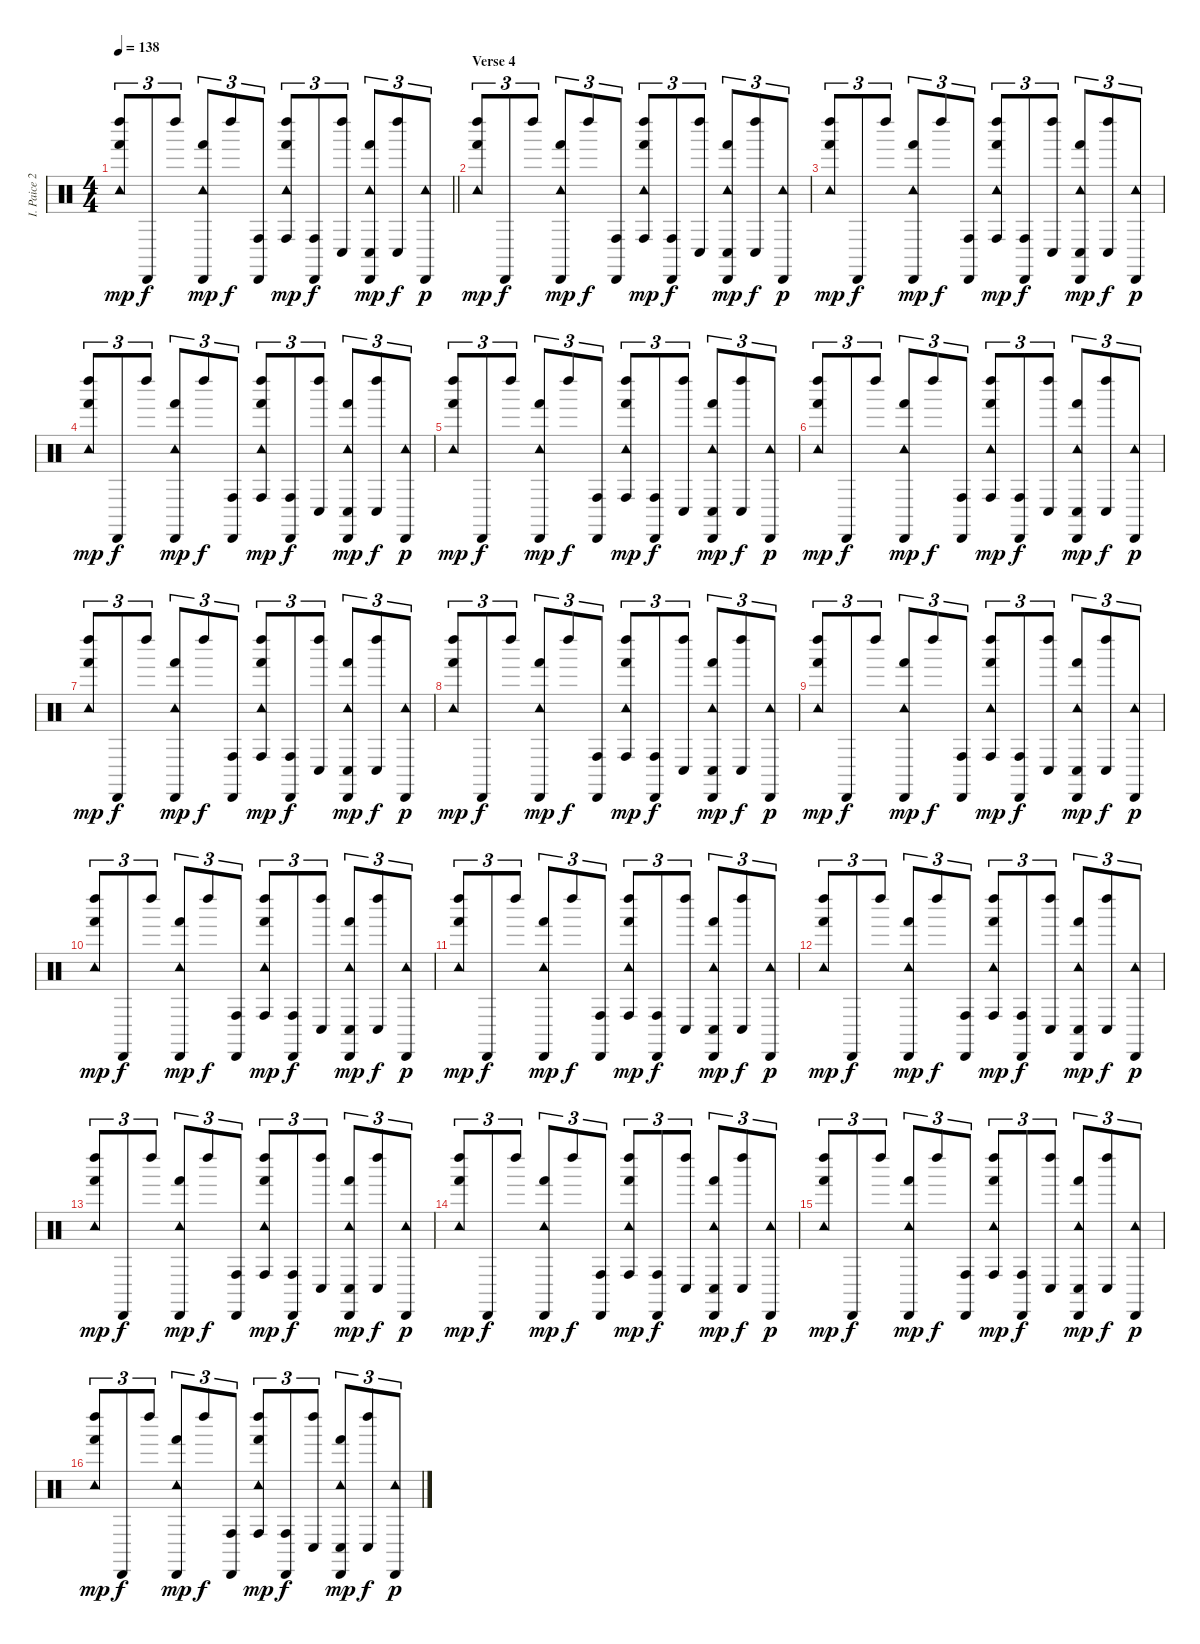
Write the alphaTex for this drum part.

\track ("I. Paice 2" "I. Paice 2") {instrument percussion}
\staff {score}
\articulation defaults
\ts (4 4)
\tempo 138
\clef neutral
\barLineRight lightlight
\ks c
("Tambourine (hit)" "Left Maraca (hit)" "Hand (hit)").8{tu (3 2) dy mp} "Cabasa (hit)".8{tu (3 2) dy f} "Left Maraca (hit)".8{tu (3 2)} ("Tambourine (hit)" "Cabasa (hit)" "Hand (hit)").8{tu (3 2) dy mp} "Left Maraca (hit)".8{tu (3 2) dy f} ("Cabasa (hit)" "Conga high (hit)").8{tu (3 2)} ("Tambourine (hit)" "Left Maraca (hit)" "Hand (hit)" "Conga high (hit)").8{tu (3 2) dy mp} ("Cabasa (hit)" "Conga high (hit)").8{tu (3 2) dy f} ("Left Maraca (hit)" "Conga low (hit)").8{tu (3 2)} ("Tambourine (hit)" "Cabasa (hit)" "Hand (hit)" "Conga low (hit)").8{tu (3 2) dy mp} ("Left Maraca (hit)" "Conga low (hit)").8{tu (3 2) dy f} ("Tambourine (hit)" "Cabasa (hit)").8{tu (3 2) dy p} |
\section ("" "Verse 4")
("Tambourine (hit)" "Left Maraca (hit)" "Hand (hit)").8{tu (3 2) dy mp} "Cabasa (hit)".8{tu (3 2) dy f} "Left Maraca (hit)".8{tu (3 2)} ("Tambourine (hit)" "Cabasa (hit)" "Hand (hit)").8{tu (3 2) dy mp} "Left Maraca (hit)".8{tu (3 2) dy f} ("Cabasa (hit)" "Conga high (hit)").8{tu (3 2)} ("Tambourine (hit)" "Left Maraca (hit)" "Hand (hit)" "Conga high (hit)").8{tu (3 2) dy mp} ("Cabasa (hit)" "Conga high (hit)").8{tu (3 2) dy f} ("Left Maraca (hit)" "Conga low (hit)").8{tu (3 2)} ("Tambourine (hit)" "Cabasa (hit)" "Hand (hit)" "Conga low (hit)").8{tu (3 2) dy mp} ("Left Maraca (hit)" "Conga low (hit)").8{tu (3 2) dy f} ("Tambourine (hit)" "Cabasa (hit)").8{tu (3 2) dy p} |
("Tambourine (hit)" "Left Maraca (hit)" "Hand (hit)").8{tu (3 2) dy mp} "Cabasa (hit)".8{tu (3 2) dy f} "Left Maraca (hit)".8{tu (3 2)} ("Tambourine (hit)" "Cabasa (hit)" "Hand (hit)").8{tu (3 2) dy mp} "Left Maraca (hit)".8{tu (3 2) dy f} ("Cabasa (hit)" "Conga high (hit)").8{tu (3 2)} ("Tambourine (hit)" "Left Maraca (hit)" "Hand (hit)" "Conga high (hit)").8{tu (3 2) dy mp} ("Cabasa (hit)" "Conga high (hit)").8{tu (3 2) dy f} ("Left Maraca (hit)" "Conga low (hit)").8{tu (3 2)} ("Tambourine (hit)" "Cabasa (hit)" "Hand (hit)" "Conga low (hit)").8{tu (3 2) dy mp} ("Left Maraca (hit)" "Conga low (hit)").8{tu (3 2) dy f} ("Tambourine (hit)" "Cabasa (hit)").8{tu (3 2) dy p} |
("Tambourine (hit)" "Left Maraca (hit)" "Hand (hit)").8{tu (3 2) dy mp} "Cabasa (hit)".8{tu (3 2) dy f} "Left Maraca (hit)".8{tu (3 2)} ("Tambourine (hit)" "Cabasa (hit)" "Hand (hit)").8{tu (3 2) dy mp} "Left Maraca (hit)".8{tu (3 2) dy f} ("Cabasa (hit)" "Conga high (hit)").8{tu (3 2)} ("Tambourine (hit)" "Left Maraca (hit)" "Hand (hit)" "Conga high (hit)").8{tu (3 2) dy mp} ("Cabasa (hit)" "Conga high (hit)").8{tu (3 2) dy f} ("Left Maraca (hit)" "Conga low (hit)").8{tu (3 2)} ("Tambourine (hit)" "Cabasa (hit)" "Hand (hit)" "Conga low (hit)").8{tu (3 2) dy mp} ("Left Maraca (hit)" "Conga low (hit)").8{tu (3 2) dy f} ("Tambourine (hit)" "Cabasa (hit)").8{tu (3 2) dy p} |
("Tambourine (hit)" "Left Maraca (hit)" "Hand (hit)").8{tu (3 2) dy mp} "Cabasa (hit)".8{tu (3 2) dy f} "Left Maraca (hit)".8{tu (3 2)} ("Tambourine (hit)" "Cabasa (hit)" "Hand (hit)").8{tu (3 2) dy mp} "Left Maraca (hit)".8{tu (3 2) dy f} ("Cabasa (hit)" "Conga high (hit)").8{tu (3 2)} ("Tambourine (hit)" "Left Maraca (hit)" "Hand (hit)" "Conga high (hit)").8{tu (3 2) dy mp} ("Cabasa (hit)" "Conga high (hit)").8{tu (3 2) dy f} ("Left Maraca (hit)" "Conga low (hit)").8{tu (3 2)} ("Tambourine (hit)" "Cabasa (hit)" "Hand (hit)" "Conga low (hit)").8{tu (3 2) dy mp} ("Left Maraca (hit)" "Conga low (hit)").8{tu (3 2) dy f} ("Tambourine (hit)" "Cabasa (hit)").8{tu (3 2) dy p} |
("Tambourine (hit)" "Left Maraca (hit)" "Hand (hit)").8{tu (3 2) dy mp} "Cabasa (hit)".8{tu (3 2) dy f} "Left Maraca (hit)".8{tu (3 2)} ("Tambourine (hit)" "Cabasa (hit)" "Hand (hit)").8{tu (3 2) dy mp} "Left Maraca (hit)".8{tu (3 2) dy f} ("Cabasa (hit)" "Conga high (hit)").8{tu (3 2)} ("Tambourine (hit)" "Left Maraca (hit)" "Hand (hit)" "Conga high (hit)").8{tu (3 2) dy mp} ("Cabasa (hit)" "Conga high (hit)").8{tu (3 2) dy f} ("Left Maraca (hit)" "Conga low (hit)").8{tu (3 2)} ("Tambourine (hit)" "Cabasa (hit)" "Hand (hit)" "Conga low (hit)").8{tu (3 2) dy mp} ("Left Maraca (hit)" "Conga low (hit)").8{tu (3 2) dy f} ("Tambourine (hit)" "Cabasa (hit)").8{tu (3 2) dy p} |
("Tambourine (hit)" "Left Maraca (hit)" "Hand (hit)").8{tu (3 2) dy mp} "Cabasa (hit)".8{tu (3 2) dy f} "Left Maraca (hit)".8{tu (3 2)} ("Tambourine (hit)" "Cabasa (hit)" "Hand (hit)").8{tu (3 2) dy mp} "Left Maraca (hit)".8{tu (3 2) dy f} ("Cabasa (hit)" "Conga high (hit)").8{tu (3 2)} ("Tambourine (hit)" "Left Maraca (hit)" "Hand (hit)" "Conga high (hit)").8{tu (3 2) dy mp} ("Cabasa (hit)" "Conga high (hit)").8{tu (3 2) dy f} ("Left Maraca (hit)" "Conga low (hit)").8{tu (3 2)} ("Tambourine (hit)" "Cabasa (hit)" "Hand (hit)" "Conga low (hit)").8{tu (3 2) dy mp} ("Left Maraca (hit)" "Conga low (hit)").8{tu (3 2) dy f} ("Tambourine (hit)" "Cabasa (hit)").8{tu (3 2) dy p} |
("Tambourine (hit)" "Left Maraca (hit)" "Hand (hit)").8{tu (3 2) dy mp} "Cabasa (hit)".8{tu (3 2) dy f} "Left Maraca (hit)".8{tu (3 2)} ("Tambourine (hit)" "Cabasa (hit)" "Hand (hit)").8{tu (3 2) dy mp} "Left Maraca (hit)".8{tu (3 2) dy f} ("Cabasa (hit)" "Conga high (hit)").8{tu (3 2)} ("Tambourine (hit)" "Left Maraca (hit)" "Hand (hit)" "Conga high (hit)").8{tu (3 2) dy mp} ("Cabasa (hit)" "Conga high (hit)").8{tu (3 2) dy f} ("Left Maraca (hit)" "Conga low (hit)").8{tu (3 2)} ("Tambourine (hit)" "Cabasa (hit)" "Hand (hit)" "Conga low (hit)").8{tu (3 2) dy mp} ("Left Maraca (hit)" "Conga low (hit)").8{tu (3 2) dy f} ("Tambourine (hit)" "Cabasa (hit)").8{tu (3 2) dy p} |
("Tambourine (hit)" "Left Maraca (hit)" "Hand (hit)").8{tu (3 2) dy mp} "Cabasa (hit)".8{tu (3 2) dy f} "Left Maraca (hit)".8{tu (3 2)} ("Tambourine (hit)" "Cabasa (hit)" "Hand (hit)").8{tu (3 2) dy mp} "Left Maraca (hit)".8{tu (3 2) dy f} ("Cabasa (hit)" "Conga high (hit)").8{tu (3 2)} ("Tambourine (hit)" "Left Maraca (hit)" "Hand (hit)" "Conga high (hit)").8{tu (3 2) dy mp} ("Cabasa (hit)" "Conga high (hit)").8{tu (3 2) dy f} ("Left Maraca (hit)" "Conga low (hit)").8{tu (3 2)} ("Tambourine (hit)" "Cabasa (hit)" "Hand (hit)" "Conga low (hit)").8{tu (3 2) dy mp} ("Left Maraca (hit)" "Conga low (hit)").8{tu (3 2) dy f} ("Tambourine (hit)" "Cabasa (hit)").8{tu (3 2) dy p} |
("Tambourine (hit)" "Left Maraca (hit)" "Hand (hit)").8{tu (3 2) dy mp} "Cabasa (hit)".8{tu (3 2) dy f} "Left Maraca (hit)".8{tu (3 2)} ("Tambourine (hit)" "Cabasa (hit)" "Hand (hit)").8{tu (3 2) dy mp} "Left Maraca (hit)".8{tu (3 2) dy f} ("Cabasa (hit)" "Conga high (hit)").8{tu (3 2)} ("Tambourine (hit)" "Left Maraca (hit)" "Hand (hit)" "Conga high (hit)").8{tu (3 2) dy mp} ("Cabasa (hit)" "Conga high (hit)").8{tu (3 2) dy f} ("Left Maraca (hit)" "Conga low (hit)").8{tu (3 2)} ("Tambourine (hit)" "Cabasa (hit)" "Hand (hit)" "Conga low (hit)").8{tu (3 2) dy mp} ("Left Maraca (hit)" "Conga low (hit)").8{tu (3 2) dy f} ("Tambourine (hit)" "Cabasa (hit)").8{tu (3 2) dy p} |
("Tambourine (hit)" "Left Maraca (hit)" "Hand (hit)").8{tu (3 2) dy mp} "Cabasa (hit)".8{tu (3 2) dy f} "Left Maraca (hit)".8{tu (3 2)} ("Tambourine (hit)" "Cabasa (hit)" "Hand (hit)").8{tu (3 2) dy mp} "Left Maraca (hit)".8{tu (3 2) dy f} ("Cabasa (hit)" "Conga high (hit)").8{tu (3 2)} ("Tambourine (hit)" "Left Maraca (hit)" "Hand (hit)" "Conga high (hit)").8{tu (3 2) dy mp} ("Cabasa (hit)" "Conga high (hit)").8{tu (3 2) dy f} ("Left Maraca (hit)" "Conga low (hit)").8{tu (3 2)} ("Tambourine (hit)" "Cabasa (hit)" "Hand (hit)" "Conga low (hit)").8{tu (3 2) dy mp} ("Left Maraca (hit)" "Conga low (hit)").8{tu (3 2) dy f} ("Tambourine (hit)" "Cabasa (hit)").8{tu (3 2) dy p} |
("Tambourine (hit)" "Left Maraca (hit)" "Hand (hit)").8{tu (3 2) dy mp} "Cabasa (hit)".8{tu (3 2) dy f} "Left Maraca (hit)".8{tu (3 2)} ("Tambourine (hit)" "Cabasa (hit)" "Hand (hit)").8{tu (3 2) dy mp} "Left Maraca (hit)".8{tu (3 2) dy f} ("Cabasa (hit)" "Conga high (hit)").8{tu (3 2)} ("Tambourine (hit)" "Left Maraca (hit)" "Hand (hit)" "Conga high (hit)").8{tu (3 2) dy mp} ("Cabasa (hit)" "Conga high (hit)").8{tu (3 2) dy f} ("Left Maraca (hit)" "Conga low (hit)").8{tu (3 2)} ("Tambourine (hit)" "Cabasa (hit)" "Hand (hit)" "Conga low (hit)").8{tu (3 2) dy mp} ("Left Maraca (hit)" "Conga low (hit)").8{tu (3 2) dy f} ("Tambourine (hit)" "Cabasa (hit)").8{tu (3 2) dy p} |
("Tambourine (hit)" "Left Maraca (hit)" "Hand (hit)").8{tu (3 2) dy mp} "Cabasa (hit)".8{tu (3 2) dy f} "Left Maraca (hit)".8{tu (3 2)} ("Tambourine (hit)" "Cabasa (hit)" "Hand (hit)").8{tu (3 2) dy mp} "Left Maraca (hit)".8{tu (3 2) dy f} ("Cabasa (hit)" "Conga high (hit)").8{tu (3 2)} ("Tambourine (hit)" "Left Maraca (hit)" "Hand (hit)" "Conga high (hit)").8{tu (3 2) dy mp} ("Cabasa (hit)" "Conga high (hit)").8{tu (3 2) dy f} ("Left Maraca (hit)" "Conga low (hit)").8{tu (3 2)} ("Tambourine (hit)" "Cabasa (hit)" "Hand (hit)" "Conga low (hit)").8{tu (3 2) dy mp} ("Left Maraca (hit)" "Conga low (hit)").8{tu (3 2) dy f} ("Tambourine (hit)" "Cabasa (hit)").8{tu (3 2) dy p} |
("Tambourine (hit)" "Left Maraca (hit)" "Hand (hit)").8{tu (3 2) dy mp} "Cabasa (hit)".8{tu (3 2) dy f} "Left Maraca (hit)".8{tu (3 2)} ("Tambourine (hit)" "Cabasa (hit)" "Hand (hit)").8{tu (3 2) dy mp} "Left Maraca (hit)".8{tu (3 2) dy f} ("Cabasa (hit)" "Conga high (hit)").8{tu (3 2)} ("Tambourine (hit)" "Left Maraca (hit)" "Hand (hit)" "Conga high (hit)").8{tu (3 2) dy mp} ("Cabasa (hit)" "Conga high (hit)").8{tu (3 2) dy f} ("Left Maraca (hit)" "Conga low (hit)").8{tu (3 2)} ("Tambourine (hit)" "Cabasa (hit)" "Hand (hit)" "Conga low (hit)").8{tu (3 2) dy mp} ("Left Maraca (hit)" "Conga low (hit)").8{tu (3 2) dy f} ("Tambourine (hit)" "Cabasa (hit)").8{tu (3 2) dy p} |
("Tambourine (hit)" "Left Maraca (hit)" "Hand (hit)").8{tu (3 2) dy mp} "Cabasa (hit)".8{tu (3 2) dy f} "Left Maraca (hit)".8{tu (3 2)} ("Tambourine (hit)" "Cabasa (hit)" "Hand (hit)").8{tu (3 2) dy mp} "Left Maraca (hit)".8{tu (3 2) dy f} ("Cabasa (hit)" "Conga high (hit)").8{tu (3 2)} ("Tambourine (hit)" "Left Maraca (hit)" "Hand (hit)" "Conga high (hit)").8{tu (3 2) dy mp} ("Cabasa (hit)" "Conga high (hit)").8{tu (3 2) dy f} ("Left Maraca (hit)" "Conga low (hit)").8{tu (3 2)} ("Tambourine (hit)" "Cabasa (hit)" "Hand (hit)" "Conga low (hit)").8{tu (3 2) dy mp} ("Left Maraca (hit)" "Conga low (hit)").8{tu (3 2) dy f} ("Tambourine (hit)" "Cabasa (hit)").8{tu (3 2) dy p} |
("Tambourine (hit)" "Left Maraca (hit)" "Hand (hit)").8{tu (3 2) dy mp} "Cabasa (hit)".8{tu (3 2) dy f} "Left Maraca (hit)".8{tu (3 2)} ("Tambourine (hit)" "Cabasa (hit)" "Hand (hit)").8{tu (3 2) dy mp} "Left Maraca (hit)".8{tu (3 2) dy f} ("Cabasa (hit)" "Conga high (hit)").8{tu (3 2)} ("Tambourine (hit)" "Left Maraca (hit)" "Hand (hit)" "Conga high (hit)").8{tu (3 2) dy mp} ("Cabasa (hit)" "Conga high (hit)").8{tu (3 2) dy f} ("Left Maraca (hit)" "Conga low (hit)").8{tu (3 2)} ("Tambourine (hit)" "Cabasa (hit)" "Hand (hit)" "Conga low (hit)").8{tu (3 2) dy mp} ("Left Maraca (hit)" "Conga low (hit)").8{tu (3 2) dy f} ("Tambourine (hit)" "Cabasa (hit)").8{tu (3 2) dy p}
